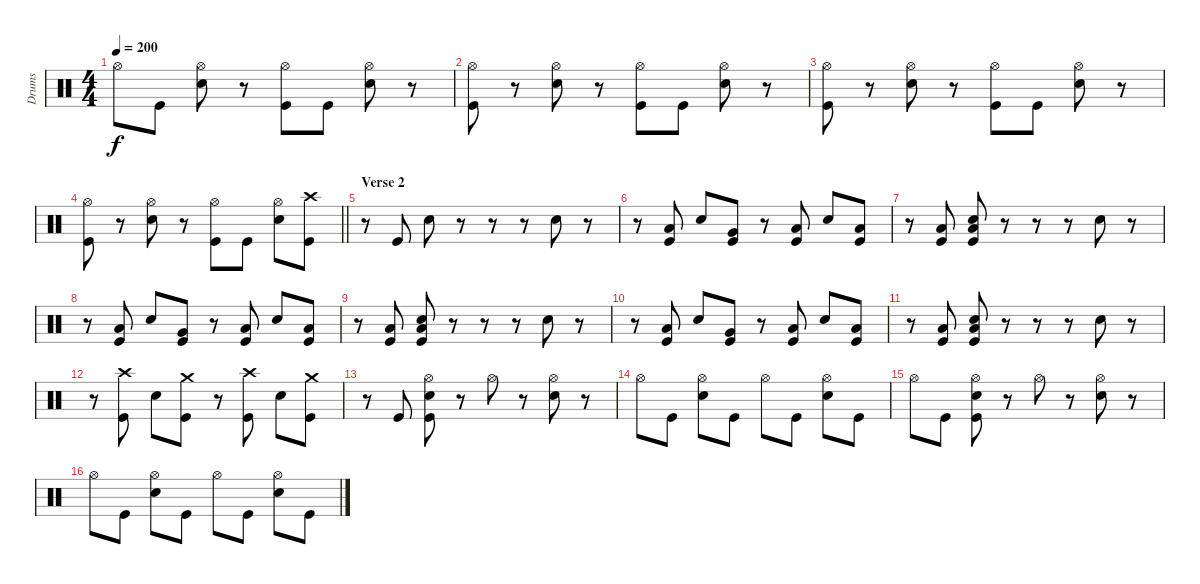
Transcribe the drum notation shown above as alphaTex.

\track ("Drums" "Drums") {instrument percussion}
\staff {score}
\articulation defaults
\ts (4 4)
\tempo 200
\clef neutral
\ks c "Hi-Hat (open)".8{dy f} "Kick (hit)".8
("Hi-Hat (open)" "Electric Snare (hit)").8 r.8 ("Hi-Hat (open)" "Kick (hit)").8 "Kick (hit)".8 ("Hi-Hat (open)" "Electric Snare (hit)").8 r.8 |
("Hi-Hat (open)" "Kick (hit)").8 r.8 ("Hi-Hat (open)" "Electric Snare (hit)").8 r.8 ("Hi-Hat (open)" "Kick (hit)").8 "Kick (hit)".8 ("Hi-Hat (open)" "Electric Snare (hit)").8 r.8 |
("Hi-Hat (open)" "Kick (hit)").8 r.8 ("Hi-Hat (open)" "Electric Snare (hit)").8 r.8 ("Hi-Hat (open)" "Kick (hit)").8 "Kick (hit)".8 ("Hi-Hat (open)" "Electric Snare (hit)").8 r.8 |
\barLineRight lightlight
("Hi-Hat (open)" "Kick (hit)").8 r.8 ("Hi-Hat (open)" "Electric Snare (hit)").8 r.8 ("Hi-Hat (open)" "Kick (hit)").8 "Kick (hit)".8 ("Hi-Hat (open)" "Electric Snare (hit)").8 ("Crash high (hit)" "Kick (hit)").8 |
\section ("" "Verse 2")
r.8 "Kick (hit)".8 "Electric Snare (hit)".8 r.8 r.8 r.8 "Electric Snare (hit)".8 r.8 |
r.8 ("Low Tom (hit)" "Kick (hit)").8 "Electric Snare (hit)".8 ("Very Low Tom (hit)" "Kick (hit)").8 r.8 ("Low Floor Tom (hit)" "Kick (hit)").8 "Electric Snare (hit)".8 ("Low Floor Tom (hit)" "Kick (hit)").8 |
r.8 ("Low Floor Tom (hit)" "Kick (hit)").8 ("Low Floor Tom (hit)" "Electric Snare (hit)" "Kick (hit)").8 r.8 r.8 r.8 "Electric Snare (hit)".8 r.8 |
r.8 ("Low Tom (hit)" "Kick (hit)").8 "Electric Snare (hit)".8 ("Very Low Tom (hit)" "Kick (hit)").8 r.8 ("Low Floor Tom (hit)" "Kick (hit)").8 "Electric Snare (hit)".8 ("Low Floor Tom (hit)" "Kick (hit)").8 |
r.8 ("Low Floor Tom (hit)" "Kick (hit)").8 ("Low Floor Tom (hit)" "Electric Snare (hit)" "Kick (hit)").8 r.8 r.8 r.8 "Electric Snare (hit)".8 r.8 |
r.8 ("Low Tom (hit)" "Kick (hit)").8 "Electric Snare (hit)".8 ("Very Low Tom (hit)" "Kick (hit)").8 r.8 ("Low Floor Tom (hit)" "Kick (hit)").8 "Electric Snare (hit)".8 ("Low Floor Tom (hit)" "Kick (hit)").8 |
r.8 ("Low Floor Tom (hit)" "Kick (hit)").8 ("Low Floor Tom (hit)" "Electric Snare (hit)" "Kick (hit)").8 r.8 r.8 r.8 "Electric Snare (hit)".8 r.8 |
r.8 ("Crash high (hit)" "Kick (hit)").8 "Electric Snare (hit)".8 ("Crash medium (hit)" "Kick (hit)").8 r.8 ("Crash high (hit)" "Kick (hit)").8 "Electric Snare (hit)".8 ("Crash medium (hit)" "Kick (hit)").8 |
r.8 "Kick (hit)".8 ("Hi-Hat (open)" "Electric Snare (hit)" "Kick (hit)").8 r.8 "Hi-Hat (open)".8 r.8 ("Hi-Hat (open)" "Electric Snare (hit)").8 r.8 |
"Hi-Hat (open)".8 "Kick (hit)".8 ("Hi-Hat (open)" "Electric Snare (hit)").8 "Kick (hit)".8 "Hi-Hat (open)".8 "Kick (hit)".8 ("Hi-Hat (open)" "Electric Snare (hit)").8 "Kick (hit)".8 |
"Hi-Hat (open)".8 "Kick (hit)".8 ("Hi-Hat (open)" "Electric Snare (hit)" "Kick (hit)").8 r.8 "Hi-Hat (open)".8 r.8 ("Hi-Hat (open)" "Electric Snare (hit)").8 r.8 |
"Hi-Hat (open)".8 "Kick (hit)".8 ("Hi-Hat (open)" "Electric Snare (hit)").8 "Kick (hit)".8 "Hi-Hat (open)".8 "Kick (hit)".8 ("Hi-Hat (open)" "Electric Snare (hit)").8 "Kick (hit)".8
